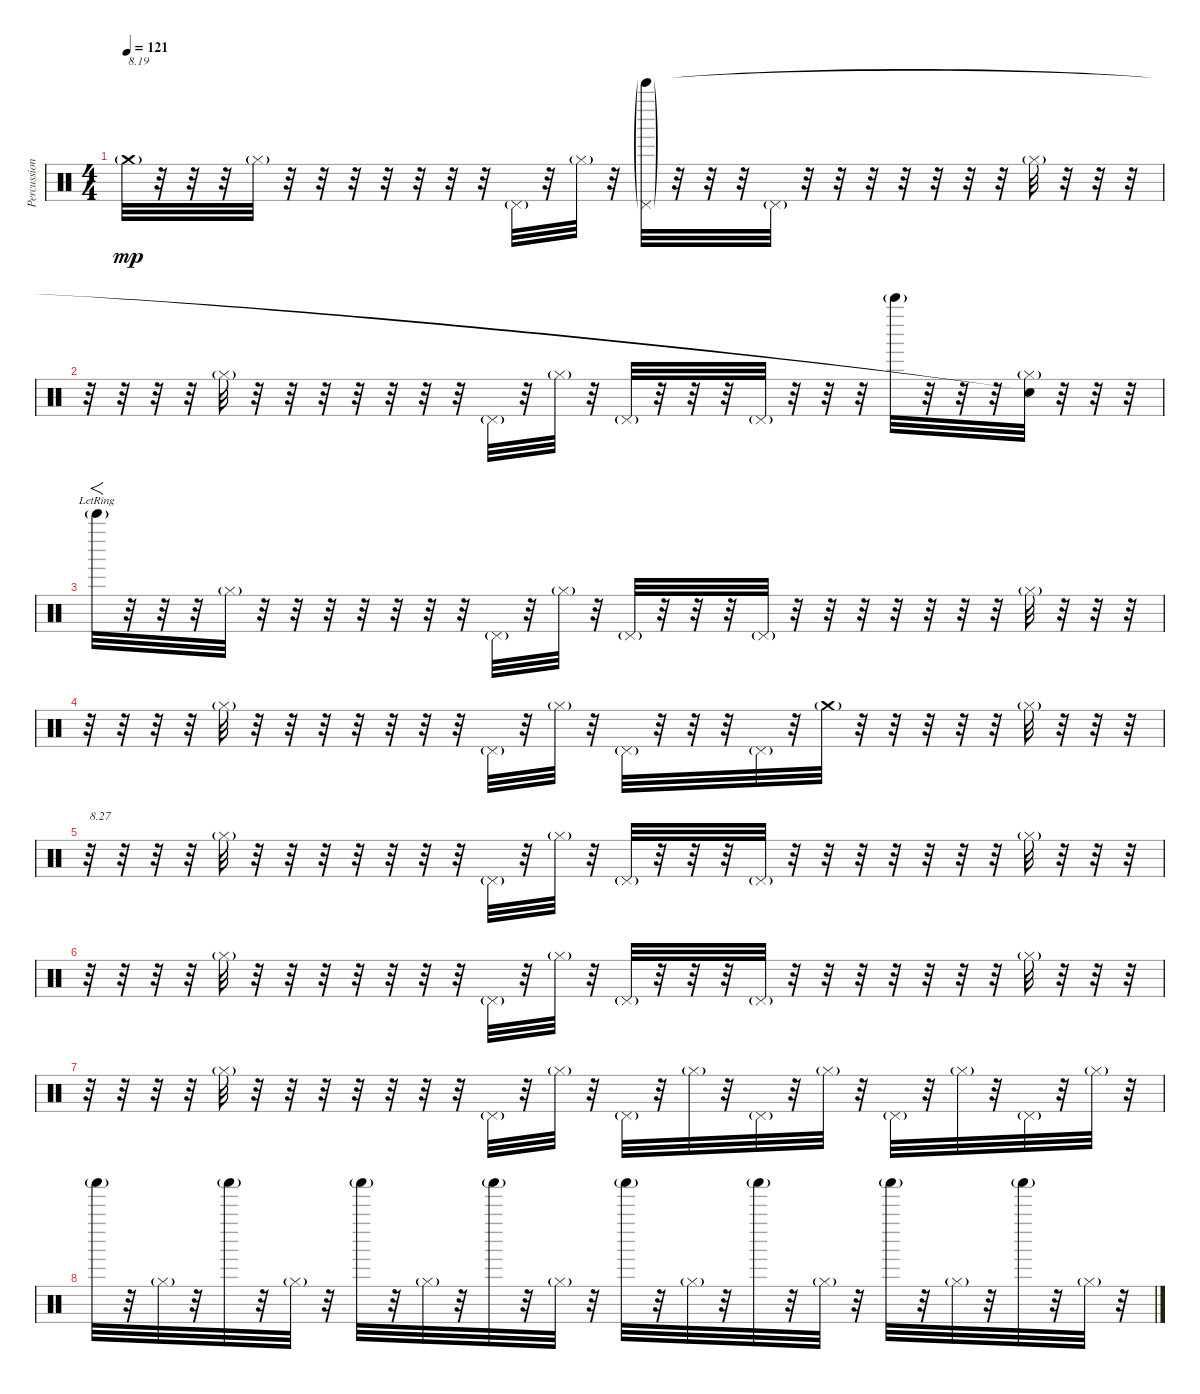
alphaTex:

\track ("Percussions" "Percussion") {instrument percussion}
\staff {score}
\articulation defaults
\ts (4 4)
\tempo 121
\clef neutral
\ks c "Crash medium (hit)"{g}.32{txt "8.19" dy mp}
r.32 r.32 r.32 "Hi-Hat (closed)"{g}.32 r.32 r.32 r.32 r.32 r.32 r.32 r.32 "Pedal Hi-Hat (hit)"{g}.32 r.32 "Hi-Hat (closed)"{g}.32 r.32 ("Pedal Hi-Hat (hit)"{g} "Bell Tree (hit)"{g}).32 r.32 r.32 r.32 "Pedal Hi-Hat (hit)"{g}.32 r.32 r.32 r.32 r.32 r.32 r.32 r.32 "Hi-Hat (closed)"{g}.32 r.32 r.32 r.32 |
r.32 r.32 r.32 r.32 "Hi-Hat (closed)"{g}.32 r.32 r.32 r.32 r.32 r.32 r.32 r.32 "Pedal Hi-Hat (hit)"{g}.32 r.32 "Hi-Hat (closed)"{g}.32 r.32 "Pedal Hi-Hat (hit)"{g}.32 r.32 r.32 r.32 "Pedal Hi-Hat (hit)"{g}.32 r.32 r.32 r.32 "Bell Tree (hit)"{g}.32 r.32 r.32 r.32 ("Hi-Hat (closed)"{g} "Snare (hit)"{t}).32 r.32 r.32 r.32 |
"Bell Tree (hit)"{g lr}.32{f} r.32 r.32 r.32 "Hi-Hat (closed)"{g}.32 r.32 r.32 r.32 r.32 r.32 r.32 r.32 "Pedal Hi-Hat (hit)"{g}.32 r.32 "Hi-Hat (closed)"{g}.32 r.32 "Pedal Hi-Hat (hit)"{g}.32 r.32 r.32 r.32 "Pedal Hi-Hat (hit)"{g}.32 r.32 r.32 r.32 r.32 r.32 r.32 r.32 "Hi-Hat (closed)"{g}.32 r.32 r.32 r.32 |
r.32 r.32 r.32 r.32 "Hi-Hat (closed)"{g}.32 r.32 r.32 r.32 r.32 r.32 r.32 r.32 "Pedal Hi-Hat (hit)"{g}.32 r.32 "Hi-Hat (closed)"{g}.32 r.32 "Pedal Hi-Hat (hit)"{g}.32 r.32 r.32 r.32 "Pedal Hi-Hat (hit)"{g}.32 r.32 "Crash medium (hit)"{g}.32 r.32 r.32 r.32 r.32 r.32 "Hi-Hat (closed)"{g}.32 r.32 r.32 r.32 |
r.32{txt "8.27"} r.32 r.32 r.32 "Hi-Hat (closed)"{g}.32 r.32 r.32 r.32 r.32 r.32 r.32 r.32 "Pedal Hi-Hat (hit)"{g}.32 r.32 "Hi-Hat (closed)"{g}.32 r.32 "Pedal Hi-Hat (hit)"{g}.32 r.32 r.32 r.32 "Pedal Hi-Hat (hit)"{g}.32 r.32 r.32 r.32 r.32 r.32 r.32 r.32 "Hi-Hat (closed)"{g}.32 r.32 r.32 r.32 |
r.32 r.32 r.32 r.32 "Hi-Hat (closed)"{g}.32 r.32 r.32 r.32 r.32 r.32 r.32 r.32 "Pedal Hi-Hat (hit)"{g}.32 r.32 "Hi-Hat (closed)"{g}.32 r.32 "Pedal Hi-Hat (hit)"{g}.32 r.32 r.32 r.32 "Pedal Hi-Hat (hit)"{g}.32 r.32 r.32 r.32 r.32 r.32 r.32 r.32 "Hi-Hat (closed)"{g}.32 r.32 r.32 r.32 |
r.32 r.32 r.32 r.32 "Hi-Hat (closed)"{g}.32 r.32 r.32 r.32 r.32 r.32 r.32 r.32 "Pedal Hi-Hat (hit)"{g}.32 r.32 "Hi-Hat (closed)"{g}.32 r.32 "Pedal Hi-Hat (hit)"{g}.32 r.32 "Hi-Hat (closed)"{g}.32 r.32 "Pedal Hi-Hat (hit)"{g}.32 r.32 "Hi-Hat (closed)"{g}.32 r.32 "Pedal Hi-Hat (hit)"{g}.32 r.32 "Hi-Hat (closed)"{g}.32 r.32 "Pedal Hi-Hat (hit)"{g}.32 r.32 "Hi-Hat (closed)"{g}.32 r.32 |
"Shaker (hit)"{g}.32 r.32 "Hi-Hat (closed)"{g}.32 r.32 "Shaker (hit)"{g}.32 r.32 "Hi-Hat (closed)"{g}.32 r.32 "Shaker (hit)"{g}.32 r.32 "Hi-Hat (closed)"{g}.32 r.32 "Shaker (hit)"{g}.32 r.32 "Hi-Hat (closed)"{g}.32 r.32 "Shaker (hit)"{g}.32 r.32 "Hi-Hat (closed)"{g}.32 r.32 "Shaker (hit)"{g}.32 r.32 "Hi-Hat (closed)"{g}.32 r.32 "Shaker (hit)"{g}.32 r.32 "Hi-Hat (closed)"{g}.32 r.32 "Shaker (hit)"{g}.32 r.32 "Hi-Hat (closed)"{g}.32 r.32
